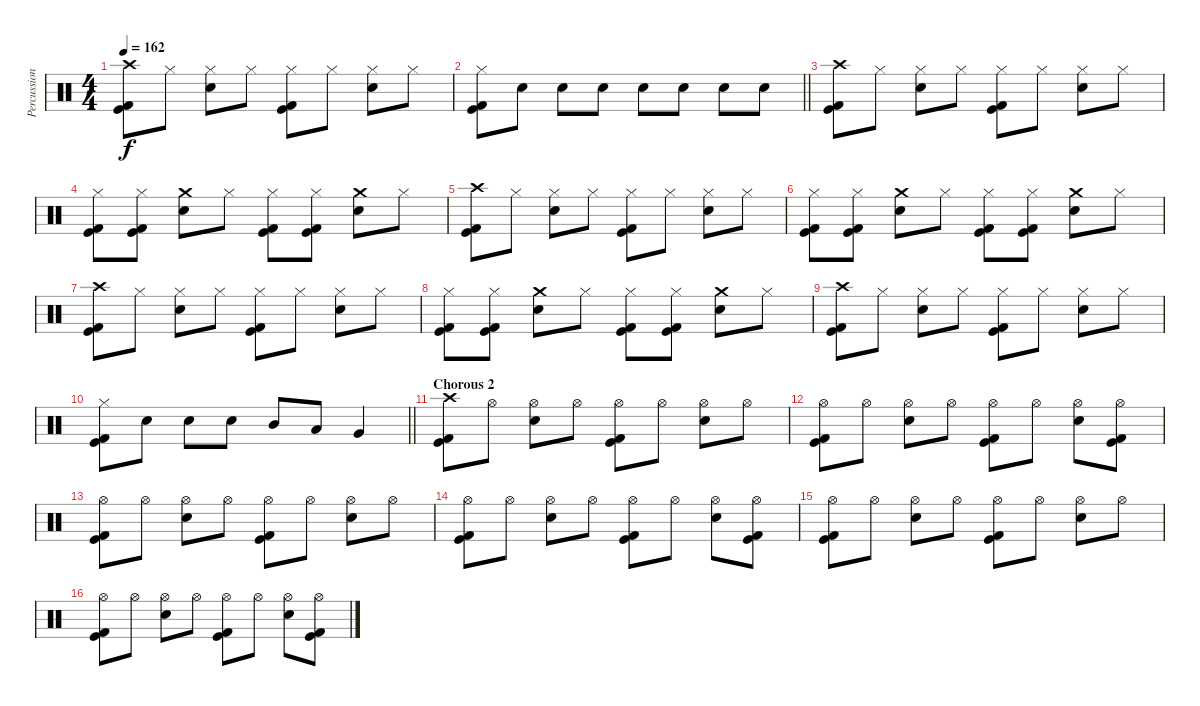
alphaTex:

\track ("Percussion" "Percussion") {instrument percussion}
\staff {score}
\articulation defaults
\ts (4 4)
\tempo 162
\clef neutral
\ks c
("Crash high (hit)" "Kick (hit)" "Kick (hit) 2").8{dy f} "Hi-Hat (closed)".8 ("Hi-Hat (closed)" "Electric Snare (hit)").8 "Hi-Hat (closed)".8 ("Hi-Hat (closed)" "Kick (hit)" "Kick (hit) 2").8 "Hi-Hat (closed)".8 ("Hi-Hat (closed)" "Electric Snare (hit)").8 "Hi-Hat (closed)".8 |
\barLineRight lightlight
("Hi-Hat (closed)" "Kick (hit)" "Kick (hit) 2").8 "Electric Snare (hit)".8 "Electric Snare (hit)".8 "Electric Snare (hit)".8 "Electric Snare (hit)".8 "Electric Snare (hit)".8 "Electric Snare (hit)".8 "Electric Snare (hit)".8 |
\section ("" "")
("Crash high (hit)" "Kick (hit)" "Kick (hit) 2").8 "Hi-Hat (closed)".8 ("Hi-Hat (closed)" "Electric Snare (hit)").8 "Hi-Hat (closed)".8 ("Hi-Hat (closed)" "Kick (hit)" "Kick (hit) 2").8 "Hi-Hat (closed)".8 ("Hi-Hat (closed)" "Electric Snare (hit)").8 "Hi-Hat (closed)".8 |
("Hi-Hat (closed)" "Kick (hit)" "Kick (hit) 2").8 ("Hi-Hat (closed)" "Kick (hit)" "Kick (hit) 2").8 ("Crash medium (hit)" "Electric Snare (hit)").8 "Hi-Hat (closed)".8 ("Hi-Hat (closed)" "Kick (hit)" "Kick (hit) 2").8 ("Hi-Hat (closed)" "Kick (hit)" "Kick (hit) 2").8 ("Crash medium (hit)" "Electric Snare (hit)").8 "Hi-Hat (closed)".8 |
("Crash high (hit)" "Kick (hit)" "Kick (hit) 2").8 "Hi-Hat (closed)".8 ("Hi-Hat (closed)" "Electric Snare (hit)").8 "Hi-Hat (closed)".8 ("Hi-Hat (closed)" "Kick (hit)" "Kick (hit) 2").8 "Hi-Hat (closed)".8 ("Hi-Hat (closed)" "Electric Snare (hit)").8 "Hi-Hat (closed)".8 |
("Hi-Hat (closed)" "Kick (hit)" "Kick (hit) 2").8 ("Hi-Hat (closed)" "Kick (hit)" "Kick (hit) 2").8 ("Crash medium (hit)" "Electric Snare (hit)").8 "Hi-Hat (closed)".8 ("Hi-Hat (closed)" "Kick (hit)" "Kick (hit) 2").8 ("Hi-Hat (closed)" "Kick (hit)" "Kick (hit) 2").8 ("Crash medium (hit)" "Electric Snare (hit)").8 "Hi-Hat (closed)".8 |
("Crash high (hit)" "Kick (hit)" "Kick (hit) 2").8 "Hi-Hat (closed)".8 ("Hi-Hat (closed)" "Electric Snare (hit)").8 "Hi-Hat (closed)".8 ("Hi-Hat (closed)" "Kick (hit)" "Kick (hit) 2").8 "Hi-Hat (closed)".8 ("Hi-Hat (closed)" "Electric Snare (hit)").8 "Hi-Hat (closed)".8 |
("Hi-Hat (closed)" "Kick (hit)" "Kick (hit) 2").8 ("Hi-Hat (closed)" "Kick (hit)" "Kick (hit) 2").8 ("Crash medium (hit)" "Electric Snare (hit)").8 "Hi-Hat (closed)".8 ("Hi-Hat (closed)" "Kick (hit)" "Kick (hit) 2").8 ("Hi-Hat (closed)" "Kick (hit)" "Kick (hit) 2").8 ("Crash medium (hit)" "Electric Snare (hit)").8 "Hi-Hat (closed)".8 |
("Crash high (hit)" "Kick (hit)" "Kick (hit) 2").8 "Hi-Hat (closed)".8 ("Hi-Hat (closed)" "Electric Snare (hit)").8 "Hi-Hat (closed)".8 ("Hi-Hat (closed)" "Kick (hit)" "Kick (hit) 2").8 "Hi-Hat (closed)".8 ("Hi-Hat (closed)" "Electric Snare (hit)").8 "Hi-Hat (closed)".8 |
\barLineRight lightlight
("Hi-Hat (closed)" "Kick (hit)" "Kick (hit) 2").8 "Electric Snare (hit)".8 "Electric Snare (hit)".8 "Electric Snare (hit)".8 "Mid Tom (hit)".8 "Low Tom (hit)".8 "Very Low Tom (hit)".4 |
\section ("" "Chorous 2")
("Crash high (hit)" "Kick (hit)" "Kick (hit) 2").8 "Hi-Hat (open)".8 ("Hi-Hat (open)" "Electric Snare (hit)").8 "Hi-Hat (open)".8 ("Hi-Hat (open)" "Kick (hit)" "Kick (hit) 2").8 "Hi-Hat (open)".8 ("Hi-Hat (open)" "Electric Snare (hit)").8 "Hi-Hat (open)".8 |
("Hi-Hat (open)" "Kick (hit)" "Kick (hit) 2").8 "Hi-Hat (open)".8 ("Hi-Hat (open)" "Electric Snare (hit)").8 "Hi-Hat (open)".8 ("Hi-Hat (open)" "Kick (hit)" "Kick (hit) 2").8 "Hi-Hat (open)".8 ("Hi-Hat (open)" "Electric Snare (hit)").8 ("Hi-Hat (open)" "Kick (hit)" "Kick (hit) 2").8 |
("Hi-Hat (open)" "Kick (hit)" "Kick (hit) 2").8 "Hi-Hat (open)".8 ("Hi-Hat (open)" "Electric Snare (hit)").8 "Hi-Hat (open)".8 ("Hi-Hat (open)" "Kick (hit)" "Kick (hit) 2").8 "Hi-Hat (open)".8 ("Hi-Hat (open)" "Electric Snare (hit)").8 "Hi-Hat (open)".8 |
("Hi-Hat (open)" "Kick (hit)" "Kick (hit) 2").8 "Hi-Hat (open)".8 ("Hi-Hat (open)" "Electric Snare (hit)").8 "Hi-Hat (open)".8 ("Hi-Hat (open)" "Kick (hit)" "Kick (hit) 2").8 "Hi-Hat (open)".8 ("Hi-Hat (open)" "Electric Snare (hit)").8 ("Hi-Hat (open)" "Kick (hit)" "Kick (hit) 2").8 |
("Hi-Hat (open)" "Kick (hit)" "Kick (hit) 2").8 "Hi-Hat (open)".8 ("Hi-Hat (open)" "Electric Snare (hit)").8 "Hi-Hat (open)".8 ("Hi-Hat (open)" "Kick (hit)" "Kick (hit) 2").8 "Hi-Hat (open)".8 ("Hi-Hat (open)" "Electric Snare (hit)").8 "Hi-Hat (open)".8 |
("Hi-Hat (open)" "Kick (hit)" "Kick (hit) 2").8 "Hi-Hat (open)".8 ("Hi-Hat (open)" "Electric Snare (hit)").8 "Hi-Hat (open)".8 ("Hi-Hat (open)" "Kick (hit)" "Kick (hit) 2").8 "Hi-Hat (open)".8 ("Hi-Hat (open)" "Electric Snare (hit)").8 ("Hi-Hat (open)" "Kick (hit)" "Kick (hit) 2").8
